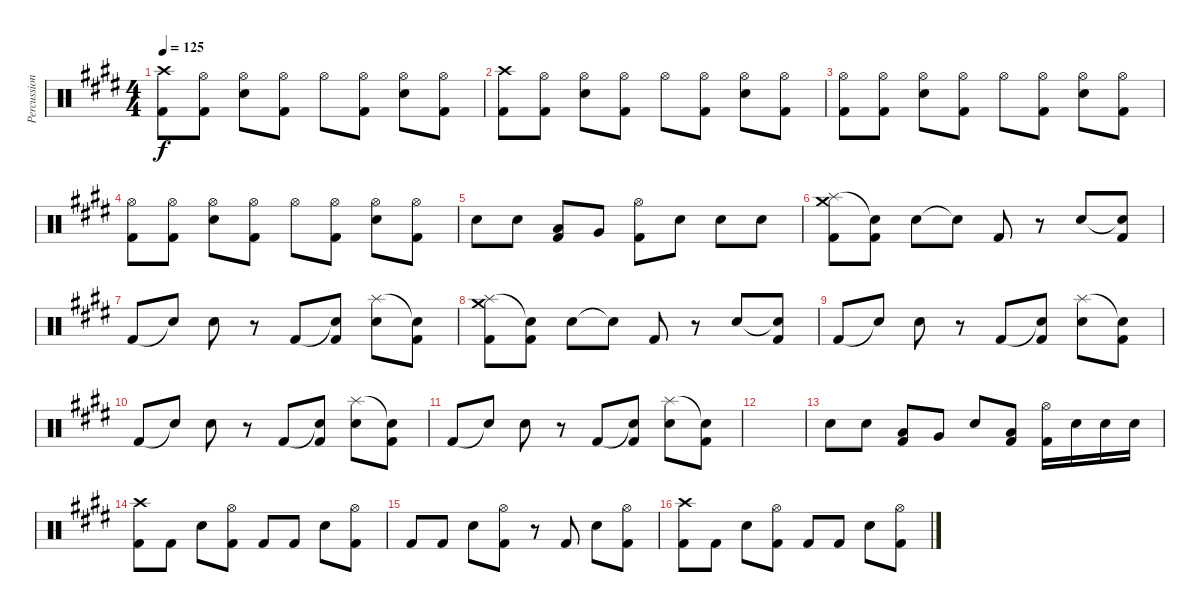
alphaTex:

\track ("Percussion" "Percussion") {instrument percussion}
\staff {score}
\articulation defaults
\ts (4 4)
\tempo 125
\clef neutral
\ks e
("Crash high (hit)" "Kick (hit) 2").8{dy f} ("Hi-Hat (open)" "Kick (hit) 2").8 ("Hi-Hat (open)" "Electric Snare (hit)").8 ("Hi-Hat (open)" "Kick (hit) 2").8 "Hi-Hat (open)".8 ("Hi-Hat (open)" "Kick (hit) 2").8 ("Hi-Hat (open)" "Electric Snare (hit)").8 ("Hi-Hat (open)" "Kick (hit) 2").8 |
("Crash high (hit)" "Kick (hit) 2").8 ("Hi-Hat (open)" "Kick (hit) 2").8 ("Hi-Hat (open)" "Electric Snare (hit)").8 ("Hi-Hat (open)" "Kick (hit) 2").8 "Hi-Hat (open)".8 ("Hi-Hat (open)" "Kick (hit) 2").8 ("Hi-Hat (open)" "Electric Snare (hit)").8 ("Hi-Hat (open)" "Kick (hit) 2").8 |
("Hi-Hat (open)" "Kick (hit) 2").8 ("Hi-Hat (open)" "Kick (hit) 2").8 ("Hi-Hat (open)" "Electric Snare (hit)").8 ("Hi-Hat (open)" "Kick (hit) 2").8 "Hi-Hat (open)".8 ("Hi-Hat (open)" "Kick (hit) 2").8 ("Hi-Hat (open)" "Electric Snare (hit)").8 ("Hi-Hat (open)" "Kick (hit) 2").8 |
("Hi-Hat (open)" "Kick (hit) 2").8 ("Hi-Hat (open)" "Kick (hit) 2").8 ("Hi-Hat (open)" "Electric Snare (hit)").8 ("Hi-Hat (open)" "Kick (hit) 2").8 "Hi-Hat (open)".8 ("Hi-Hat (open)" "Kick (hit) 2").8 ("Hi-Hat (open)" "Electric Snare (hit)").8 ("Hi-Hat (open)" "Kick (hit) 2").8 |
"Electric Snare (hit)".8 "Electric Snare (hit)".8 ("Low Tom (hit)" "Kick (hit) 2").8 "Very Low Tom (hit)".8 ("Hi-Hat (open)" "Kick (hit) 2").8 "Electric Snare (hit)".8 "Electric Snare (hit)".8 "Electric Snare (hit)".8 |
("Splash (hit)" "Crash medium (hit)" "Kick (hit) 2").8 ("Snare (hit)"{t} "Kick (hit) 2").8 "Electric Snare (hit)".8 "Snare (hit)"{t}.8 "Kick (hit) 2".8 r.8 "Electric Snare (hit)".8 ("Snare (hit)"{t} "Kick (hit) 2").8 |
"Kick (hit) 2".8 "Snare (hit)"{t}.8 "Electric Snare (hit)".8 r.8 "Kick (hit) 2".8 ("Snare (hit)"{t} "Kick (hit) 2").8 ("Splash (hit)" "Electric Snare (hit)").8 ("Snare (hit)"{t} "Kick (hit) 2").8 |
("Splash (hit)" "Crash medium (hit)" "Kick (hit) 2").8 ("Snare (hit)"{t} "Kick (hit) 2").8 "Electric Snare (hit)".8 "Snare (hit)"{t}.8 "Kick (hit) 2".8 r.8 "Electric Snare (hit)".8 ("Snare (hit)"{t} "Kick (hit) 2").8 |
"Kick (hit) 2".8 "Snare (hit)"{t}.8 "Electric Snare (hit)".8 r.8 "Kick (hit) 2".8 ("Snare (hit)"{t} "Kick (hit) 2").8 ("Splash (hit)" "Electric Snare (hit)").8 ("Snare (hit)"{t} "Kick (hit) 2").8 |
"Kick (hit) 2".8 "Snare (hit)"{t}.8 "Electric Snare (hit)".8 r.8 "Kick (hit) 2".8 ("Snare (hit)"{t} "Kick (hit) 2").8 ("Splash (hit)" "Electric Snare (hit)").8 ("Snare (hit)"{t} "Kick (hit) 2").8 |
"Kick (hit) 2".8 "Snare (hit)"{t}.8 "Electric Snare (hit)".8 r.8 "Kick (hit) 2".8 ("Snare (hit)"{t} "Kick (hit) 2").8 ("Splash (hit)" "Electric Snare (hit)").8 ("Snare (hit)"{t} "Kick (hit) 2").8 |
|
"Electric Snare (hit)".8 "Electric Snare (hit)".8 ("Low Tom (hit)" "Kick (hit) 2").8 "Very Low Tom (hit)".8 "Electric Snare (hit)".8 ("Low Tom (hit)" "Kick (hit) 2").8 ("Hi-Hat (open)" "Kick (hit) 2").16 "Electric Snare (hit)".16 "Electric Snare (hit)".16 "Electric Snare (hit)".16 |
("Crash high (hit)" "Kick (hit) 2").8 "Kick (hit) 2".8 "Electric Snare (hit)".8 ("Hi-Hat (open)" "Kick (hit) 2").8 "Kick (hit) 2".8 "Kick (hit) 2".8 "Electric Snare (hit)".8 ("Hi-Hat (open)" "Kick (hit) 2").8 |
"Kick (hit) 2".8 "Kick (hit) 2".8 "Electric Snare (hit)".8 ("Hi-Hat (open)" "Kick (hit) 2").8 r.8 "Kick (hit) 2".8 "Electric Snare (hit)".8 ("Hi-Hat (open)" "Kick (hit) 2").8 |
("Crash high (hit)" "Kick (hit) 2").8 "Kick (hit) 2".8 "Electric Snare (hit)".8 ("Hi-Hat (open)" "Kick (hit) 2").8 "Kick (hit) 2".8 "Kick (hit) 2".8 "Electric Snare (hit)".8 ("Hi-Hat (open)" "Kick (hit) 2").8
